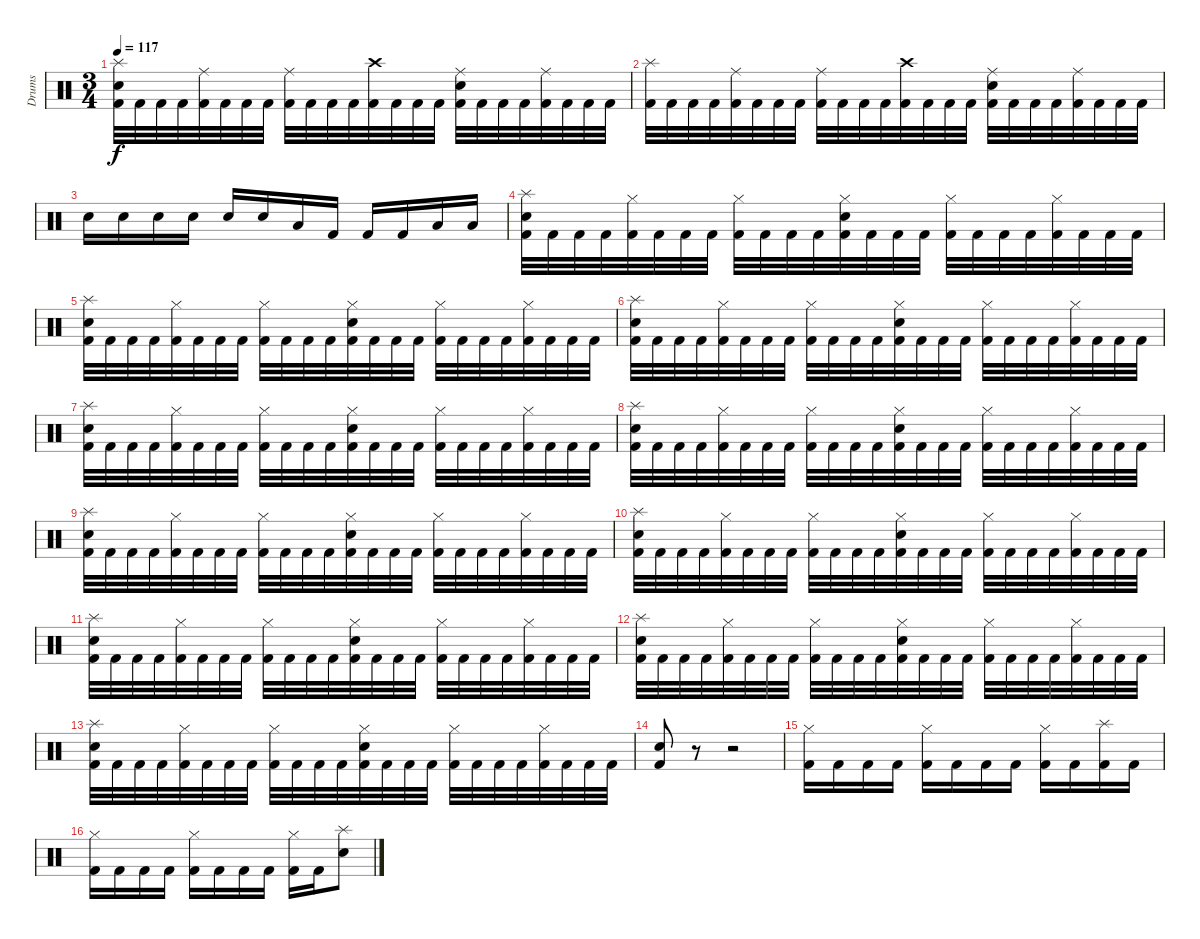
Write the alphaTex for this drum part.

\track ("Drums" "Drums") {instrument percussion}
\staff {score}
\articulation defaults
\ts (3 4)
\tempo 117
\clef neutral
\ks c
("Splash (hit)" "Electric Snare (hit)" "Kick (hit) 2").32{dy f} "Kick (hit) 2".32 "Kick (hit) 2".32 "Kick (hit) 2".32 ("Ride (middle)" "Kick (hit) 2").32 "Kick (hit) 2".32 "Kick (hit) 2".32 "Kick (hit) 2".32 ("Ride (middle)" "Kick (hit) 2").32 "Kick (hit) 2".32 "Kick (hit) 2".32 "Kick (hit) 2".32 ("Crash high (hit)" "Kick (hit) 2").32 "Kick (hit) 2".32 "Kick (hit) 2".32 "Kick (hit) 2".32 ("Ride (middle)" "Electric Snare (hit)" "Kick (hit) 2").32 "Kick (hit) 2".32 "Kick (hit) 2".32 "Kick (hit) 2".32 ("Ride (middle)" "Kick (hit) 2").32 "Kick (hit) 2".32 "Kick (hit) 2".32 "Kick (hit) 2".32 |
("Splash (hit)" "Kick (hit) 2").32 "Kick (hit) 2".32 "Kick (hit) 2".32 "Kick (hit) 2".32 ("Ride (middle)" "Kick (hit) 2").32 "Kick (hit) 2".32 "Kick (hit) 2".32 "Kick (hit) 2".32 ("Ride (middle)" "Kick (hit) 2").32 "Kick (hit) 2".32 "Kick (hit) 2".32 "Kick (hit) 2".32 ("Crash high (hit)" "Kick (hit) 2").32 "Kick (hit) 2".32 "Kick (hit) 2".32 "Kick (hit) 2".32 ("Ride (middle)" "Electric Snare (hit)" "Kick (hit) 2").32 "Kick (hit) 2".32 "Kick (hit) 2".32 "Kick (hit) 2".32 ("Ride (middle)" "Kick (hit) 2").32 "Kick (hit) 2".32 "Kick (hit) 2".32 "Kick (hit) 2".32 |
"Electric Snare (hit)".16 "Electric Snare (hit)".16 "Electric Snare (hit)".16 "Electric Snare (hit)".16 "Electric Snare (hit)".16 "Electric Snare (hit)".16 "Low Floor Tom (hit)".16 "Kick (hit) 2".16 "Kick (hit) 2".16 "Kick (hit) 2".16 "Low Floor Tom (hit)".16 "Low Floor Tom (hit)".16 |
("Splash (hit)" "Electric Snare (hit)" "Kick (hit) 2").32 "Kick (hit) 2".32 "Kick (hit) 2".32 "Kick (hit) 2".32 ("Hi-Hat (closed)" "Kick (hit) 2").32 "Kick (hit) 2".32 "Kick (hit) 2".32 "Kick (hit) 2".32 ("Hi-Hat (closed)" "Kick (hit) 2").32 "Kick (hit) 2".32 "Kick (hit) 2".32 "Kick (hit) 2".32 ("Hi-Hat (closed)" "Electric Snare (hit)" "Kick (hit) 2").32 "Kick (hit) 2".32 "Kick (hit) 2".32 "Kick (hit) 2".32 ("Hi-Hat (closed)" "Kick (hit) 2").32 "Kick (hit) 2".32 "Kick (hit) 2".32 "Kick (hit) 2".32 ("Hi-Hat (closed)" "Kick (hit) 2").32 "Kick (hit) 2".32 "Kick (hit) 2".32 "Kick (hit) 2".32 |
("Splash (hit)" "Electric Snare (hit)" "Kick (hit) 2").32 "Kick (hit) 2".32 "Kick (hit) 2".32 "Kick (hit) 2".32 ("Hi-Hat (closed)" "Kick (hit) 2").32 "Kick (hit) 2".32 "Kick (hit) 2".32 "Kick (hit) 2".32 ("Hi-Hat (closed)" "Kick (hit) 2").32 "Kick (hit) 2".32 "Kick (hit) 2".32 "Kick (hit) 2".32 ("Hi-Hat (closed)" "Electric Snare (hit)" "Kick (hit) 2").32 "Kick (hit) 2".32 "Kick (hit) 2".32 "Kick (hit) 2".32 ("Hi-Hat (closed)" "Kick (hit) 2").32 "Kick (hit) 2".32 "Kick (hit) 2".32 "Kick (hit) 2".32 ("Hi-Hat (closed)" "Kick (hit) 2").32 "Kick (hit) 2".32 "Kick (hit) 2".32 "Kick (hit) 2".32 |
("Splash (hit)" "Electric Snare (hit)" "Kick (hit) 2").32 "Kick (hit) 2".32 "Kick (hit) 2".32 "Kick (hit) 2".32 ("Hi-Hat (closed)" "Kick (hit) 2").32 "Kick (hit) 2".32 "Kick (hit) 2".32 "Kick (hit) 2".32 ("Hi-Hat (closed)" "Kick (hit) 2").32 "Kick (hit) 2".32 "Kick (hit) 2".32 "Kick (hit) 2".32 ("Hi-Hat (closed)" "Electric Snare (hit)" "Kick (hit) 2").32 "Kick (hit) 2".32 "Kick (hit) 2".32 "Kick (hit) 2".32 ("Hi-Hat (closed)" "Kick (hit) 2").32 "Kick (hit) 2".32 "Kick (hit) 2".32 "Kick (hit) 2".32 ("Hi-Hat (closed)" "Kick (hit) 2").32 "Kick (hit) 2".32 "Kick (hit) 2".32 "Kick (hit) 2".32 |
("Splash (hit)" "Electric Snare (hit)" "Kick (hit) 2").32 "Kick (hit) 2".32 "Kick (hit) 2".32 "Kick (hit) 2".32 ("Hi-Hat (closed)" "Kick (hit) 2").32 "Kick (hit) 2".32 "Kick (hit) 2".32 "Kick (hit) 2".32 ("Hi-Hat (closed)" "Kick (hit) 2").32 "Kick (hit) 2".32 "Kick (hit) 2".32 "Kick (hit) 2".32 ("Hi-Hat (closed)" "Electric Snare (hit)" "Kick (hit) 2").32 "Kick (hit) 2".32 "Kick (hit) 2".32 "Kick (hit) 2".32 ("Hi-Hat (closed)" "Kick (hit) 2").32 "Kick (hit) 2".32 "Kick (hit) 2".32 "Kick (hit) 2".32 ("Hi-Hat (closed)" "Kick (hit) 2").32 "Kick (hit) 2".32 "Kick (hit) 2".32 "Kick (hit) 2".32 |
("Splash (hit)" "Electric Snare (hit)" "Kick (hit) 2").32 "Kick (hit) 2".32 "Kick (hit) 2".32 "Kick (hit) 2".32 ("Hi-Hat (closed)" "Kick (hit) 2").32 "Kick (hit) 2".32 "Kick (hit) 2".32 "Kick (hit) 2".32 ("Hi-Hat (closed)" "Kick (hit) 2").32 "Kick (hit) 2".32 "Kick (hit) 2".32 "Kick (hit) 2".32 ("Hi-Hat (closed)" "Electric Snare (hit)" "Kick (hit) 2").32 "Kick (hit) 2".32 "Kick (hit) 2".32 "Kick (hit) 2".32 ("Hi-Hat (closed)" "Kick (hit) 2").32 "Kick (hit) 2".32 "Kick (hit) 2".32 "Kick (hit) 2".32 ("Hi-Hat (closed)" "Kick (hit) 2").32 "Kick (hit) 2".32 "Kick (hit) 2".32 "Kick (hit) 2".32 |
("Splash (hit)" "Electric Snare (hit)" "Kick (hit) 2").32 "Kick (hit) 2".32 "Kick (hit) 2".32 "Kick (hit) 2".32 ("Hi-Hat (closed)" "Kick (hit) 2").32 "Kick (hit) 2".32 "Kick (hit) 2".32 "Kick (hit) 2".32 ("Hi-Hat (closed)" "Kick (hit) 2").32 "Kick (hit) 2".32 "Kick (hit) 2".32 "Kick (hit) 2".32 ("Hi-Hat (closed)" "Electric Snare (hit)" "Kick (hit) 2").32 "Kick (hit) 2".32 "Kick (hit) 2".32 "Kick (hit) 2".32 ("Hi-Hat (closed)" "Kick (hit) 2").32 "Kick (hit) 2".32 "Kick (hit) 2".32 "Kick (hit) 2".32 ("Hi-Hat (closed)" "Kick (hit) 2").32 "Kick (hit) 2".32 "Kick (hit) 2".32 "Kick (hit) 2".32 |
("Splash (hit)" "Electric Snare (hit)" "Kick (hit) 2").32 "Kick (hit) 2".32 "Kick (hit) 2".32 "Kick (hit) 2".32 ("Hi-Hat (closed)" "Kick (hit) 2").32 "Kick (hit) 2".32 "Kick (hit) 2".32 "Kick (hit) 2".32 ("Hi-Hat (closed)" "Kick (hit) 2").32 "Kick (hit) 2".32 "Kick (hit) 2".32 "Kick (hit) 2".32 ("Hi-Hat (closed)" "Electric Snare (hit)" "Kick (hit) 2").32 "Kick (hit) 2".32 "Kick (hit) 2".32 "Kick (hit) 2".32 ("Hi-Hat (closed)" "Kick (hit) 2").32 "Kick (hit) 2".32 "Kick (hit) 2".32 "Kick (hit) 2".32 ("Hi-Hat (closed)" "Kick (hit) 2").32 "Kick (hit) 2".32 "Kick (hit) 2".32 "Kick (hit) 2".32 |
("Splash (hit)" "Electric Snare (hit)" "Kick (hit) 2").32 "Kick (hit) 2".32 "Kick (hit) 2".32 "Kick (hit) 2".32 ("Hi-Hat (closed)" "Kick (hit) 2").32 "Kick (hit) 2".32 "Kick (hit) 2".32 "Kick (hit) 2".32 ("Hi-Hat (closed)" "Kick (hit) 2").32 "Kick (hit) 2".32 "Kick (hit) 2".32 "Kick (hit) 2".32 ("Hi-Hat (closed)" "Electric Snare (hit)" "Kick (hit) 2").32 "Kick (hit) 2".32 "Kick (hit) 2".32 "Kick (hit) 2".32 ("Hi-Hat (closed)" "Kick (hit) 2").32 "Kick (hit) 2".32 "Kick (hit) 2".32 "Kick (hit) 2".32 ("Hi-Hat (closed)" "Kick (hit) 2").32 "Kick (hit) 2".32 "Kick (hit) 2".32 "Kick (hit) 2".32 |
("Splash (hit)" "Electric Snare (hit)" "Kick (hit) 2").32 "Kick (hit) 2".32 "Kick (hit) 2".32 "Kick (hit) 2".32 ("Hi-Hat (closed)" "Kick (hit) 2").32 "Kick (hit) 2".32 "Kick (hit) 2".32 "Kick (hit) 2".32 ("Hi-Hat (closed)" "Kick (hit) 2").32 "Kick (hit) 2".32 "Kick (hit) 2".32 "Kick (hit) 2".32 ("Hi-Hat (closed)" "Electric Snare (hit)" "Kick (hit) 2").32 "Kick (hit) 2".32 "Kick (hit) 2".32 "Kick (hit) 2".32 ("Hi-Hat (closed)" "Kick (hit) 2").32 "Kick (hit) 2".32 "Kick (hit) 2".32 "Kick (hit) 2".32 ("Hi-Hat (closed)" "Kick (hit) 2").32 "Kick (hit) 2".32 "Kick (hit) 2".32 "Kick (hit) 2".32 |
("Splash (hit)" "Electric Snare (hit)" "Kick (hit) 2").32 "Kick (hit) 2".32 "Kick (hit) 2".32 "Kick (hit) 2".32 ("Hi-Hat (closed)" "Kick (hit) 2").32 "Kick (hit) 2".32 "Kick (hit) 2".32 "Kick (hit) 2".32 ("Hi-Hat (closed)" "Kick (hit) 2").32 "Kick (hit) 2".32 "Kick (hit) 2".32 "Kick (hit) 2".32 ("Hi-Hat (closed)" "Electric Snare (hit)" "Kick (hit) 2").32 "Kick (hit) 2".32 "Kick (hit) 2".32 "Kick (hit) 2".32 ("Hi-Hat (closed)" "Kick (hit) 2").32 "Kick (hit) 2".32 "Kick (hit) 2".32 "Kick (hit) 2".32 ("Hi-Hat (closed)" "Kick (hit) 2").32 "Kick (hit) 2".32 "Kick (hit) 2".32 "Kick (hit) 2".32 |
("Electric Snare (hit)" "Kick (hit) 2").8 r.8 r.2 |
("Hi-Hat (closed)" "Kick (hit) 2").16 "Kick (hit) 2".16 "Kick (hit) 2".16 "Kick (hit) 2".16 ("Hi-Hat (closed)" "Kick (hit) 2").16 "Kick (hit) 2".16 "Kick (hit) 2".16 "Kick (hit) 2".16 ("Hi-Hat (closed)" "Kick (hit) 2").16 "Kick (hit) 2".16 ("Splash (hit)" "Kick (hit) 2").16 "Kick (hit) 2".16 |
("Hi-Hat (closed)" "Kick (hit) 2").16 "Kick (hit) 2".16 "Kick (hit) 2".16 "Kick (hit) 2".16 ("Hi-Hat (closed)" "Kick (hit) 2").16 "Kick (hit) 2".16 "Kick (hit) 2".16 "Kick (hit) 2".16 ("Hi-Hat (closed)" "Kick (hit) 2").16 "Kick (hit) 2".16 ("Splash (hit)" "Electric Snare (hit)").8
